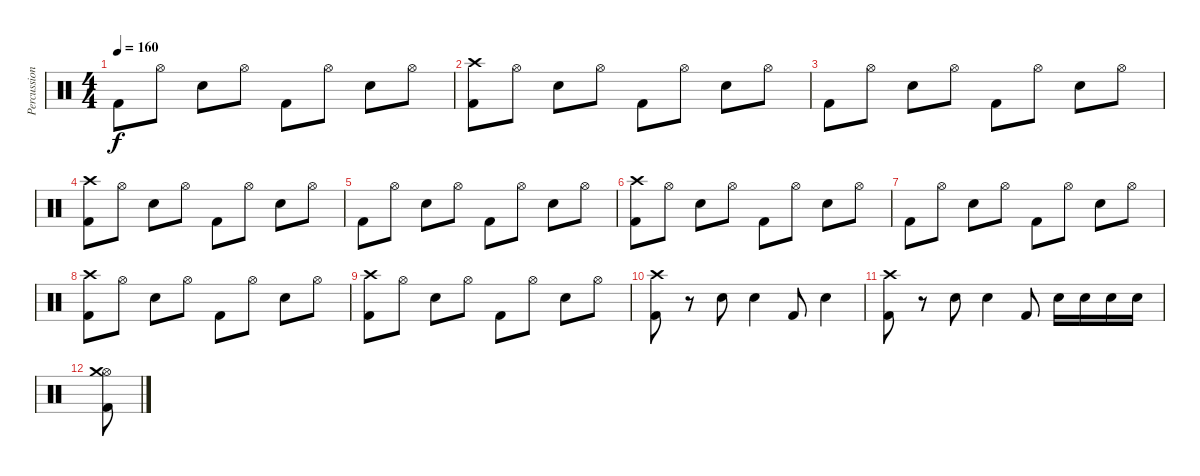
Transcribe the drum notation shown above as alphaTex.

\track ("Percussion" "Percussion") {instrument percussion}
\staff {score}
\articulation defaults
\ts (4 4)
\tempo 160
\clef neutral
\ks c "Kick (hit) 2".8{dy f} "Hi-Hat (open)".8 "Electric Snare (hit)".8 "Hi-Hat (open)".8 "Kick (hit) 2".8 "Hi-Hat (open)".8 "Electric Snare (hit)".8 "Hi-Hat (open)".8
|
("Kick (hit) 2" "Crash high (hit)").8 "Hi-Hat (open)".8 "Electric Snare (hit)".8 "Hi-Hat (open)".8 "Kick (hit) 2".8 "Hi-Hat (open)".8 "Electric Snare (hit)".8 "Hi-Hat (open)".8 |
"Kick (hit) 2".8 "Hi-Hat (open)".8 "Electric Snare (hit)".8 "Hi-Hat (open)".8 "Kick (hit) 2".8 "Hi-Hat (open)".8 "Electric Snare (hit)".8 "Hi-Hat (open)".8 |
("Kick (hit) 2" "Crash high (hit)").8 "Hi-Hat (open)".8 "Electric Snare (hit)".8 "Hi-Hat (open)".8 "Kick (hit) 2".8 "Hi-Hat (open)".8 "Electric Snare (hit)".8 "Hi-Hat (open)".8 |
"Kick (hit) 2".8 "Hi-Hat (open)".8 "Electric Snare (hit)".8 "Hi-Hat (open)".8 "Kick (hit) 2".8 "Hi-Hat (open)".8 "Electric Snare (hit)".8 "Hi-Hat (open)".8 |
("Kick (hit) 2" "Crash high (hit)").8 "Hi-Hat (open)".8 "Electric Snare (hit)".8 "Hi-Hat (open)".8 "Kick (hit) 2".8 "Hi-Hat (open)".8 "Electric Snare (hit)".8 "Hi-Hat (open)".8 |
"Kick (hit) 2".8 "Hi-Hat (open)".8 "Electric Snare (hit)".8 "Hi-Hat (open)".8 "Kick (hit) 2".8 "Hi-Hat (open)".8 "Electric Snare (hit)".8 "Hi-Hat (open)".8 |
("Kick (hit) 2" "Crash high (hit)").8 "Hi-Hat (open)".8 "Electric Snare (hit)".8 "Hi-Hat (open)".8 "Kick (hit) 2".8 "Hi-Hat (open)".8 "Electric Snare (hit)".8 "Hi-Hat (open)".8 |
("Kick (hit) 2" "Crash high (hit)").8 "Hi-Hat (open)".8 "Electric Snare (hit)".8 "Hi-Hat (open)".8 "Kick (hit) 2".8 "Hi-Hat (open)".8 "Electric Snare (hit)".8 "Hi-Hat (open)".8 |
("Kick (hit) 2" "Crash high (hit)").8 r.8 "Electric Snare (hit)".8 "Electric Snare (hit)".4 "Kick (hit) 2".8 "Electric Snare (hit)".4 |
("Kick (hit) 2" "Crash high (hit)").8 r.8 "Electric Snare (hit)".8 "Electric Snare (hit)".4 "Kick (hit) 2".8 "Electric Snare (hit)".16 "Electric Snare (hit)".16 "Electric Snare (hit)".16 "Electric Snare (hit)".16 |
("Hi-Hat (open)" "Kick (hit) 2" "Crash medium (hit)").8
